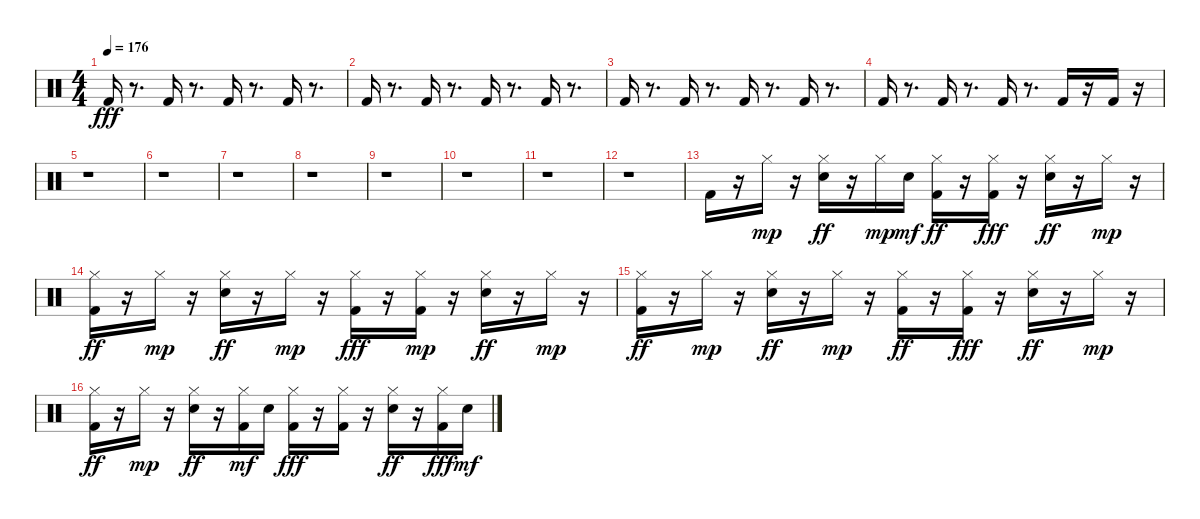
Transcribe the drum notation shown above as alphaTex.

\track "" {instrument percussion}
\staff {score}
\articulation defaults
\ts (4 4)
\tempo 176
\clef neutral
\ks c "Kick (hit) 2".16{dy fff}
r.8{d} "Kick (hit) 2".16 r.8{d} "Kick (hit) 2".16 r.8{d} "Kick (hit) 2".16 r.8{d} |
"Kick (hit) 2".16 r.8{d} "Kick (hit) 2".16 r.8{d} "Kick (hit) 2".16 r.8{d} "Kick (hit) 2".16 r.8{d} |
"Kick (hit) 2".16 r.8{d} "Kick (hit) 2".16 r.8{d} "Kick (hit) 2".16 r.8{d} "Kick (hit) 2".16 r.8{d} |
"Kick (hit) 2".16 r.8{d} "Kick (hit) 2".16 r.8{d} "Kick (hit) 2".16 r.8{d} "Kick (hit) 2".16 r.16 "Kick (hit) 2".16 r.16 |
r.1 |
r.1 |
r.1 |
r.1 |
r.1 |
r.1 |
r.1 |
r.1 |
"Kick (hit) 2".16 r.16 "Hi-Hat (closed)".16{dy mp} r.16 ("Electric Snare (hit)" "Hi-Hat (closed)").16{dy ff} r.16 "Hi-Hat (closed)".16{dy mp} "Electric Snare (hit)".16{dy mf} ("Kick (hit) 2" "Hi-Hat (closed)").16{dy ff} r.16 ("Hi-Hat (closed)" "Kick (hit) 2").16{dy fff} r.16 ("Electric Snare (hit)" "Hi-Hat (closed)").16{dy ff} r.16 "Hi-Hat (closed)".16{dy mp} r.16 |
("Kick (hit) 2" "Hi-Hat (closed)").16{dy ff} r.16 "Hi-Hat (closed)".16{dy mp} r.16 ("Electric Snare (hit)" "Hi-Hat (closed)").16{dy ff} r.16 "Hi-Hat (closed)".16{dy mp} r.16 ("Hi-Hat (closed)" "Kick (hit) 2").16{dy fff} r.16 ("Kick (hit) 2" "Hi-Hat (closed)").16{dy mp} r.16 ("Electric Snare (hit)" "Hi-Hat (closed)").16{dy ff} r.16 "Hi-Hat (closed)".16{dy mp} r.16 |
("Kick (hit) 2" "Hi-Hat (closed)").16{dy ff} r.16 "Hi-Hat (closed)".16{dy mp} r.16 ("Electric Snare (hit)" "Hi-Hat (closed)").16{dy ff} r.16 "Hi-Hat (closed)".16{dy mp} r.16 ("Kick (hit) 2" "Hi-Hat (closed)").16{dy ff} r.16 ("Hi-Hat (closed)" "Kick (hit) 2").16{dy fff} r.16 ("Electric Snare (hit)" "Hi-Hat (closed)").16{dy ff} r.16 "Hi-Hat (closed)".16{dy mp} r.16 |
("Kick (hit) 2" "Hi-Hat (closed)").16{dy ff} r.16 "Hi-Hat (closed)".16{dy mp} r.16 ("Electric Snare (hit)" "Hi-Hat (closed)").16{dy ff} r.16 ("Hi-Hat (closed)" "Kick (hit) 2").16{dy mf} "Electric Snare (hit)".16 ("Hi-Hat (closed)" "Kick (hit) 2").16{dy fff} r.16 ("Hi-Hat (closed)" "Kick (hit) 2").16 r.16 ("Electric Snare (hit)" "Hi-Hat (closed)").16{dy ff} r.16 ("Hi-Hat (closed)" "Kick (hit) 2").16{dy fff} "Electric Snare (hit)".16{dy mf}
